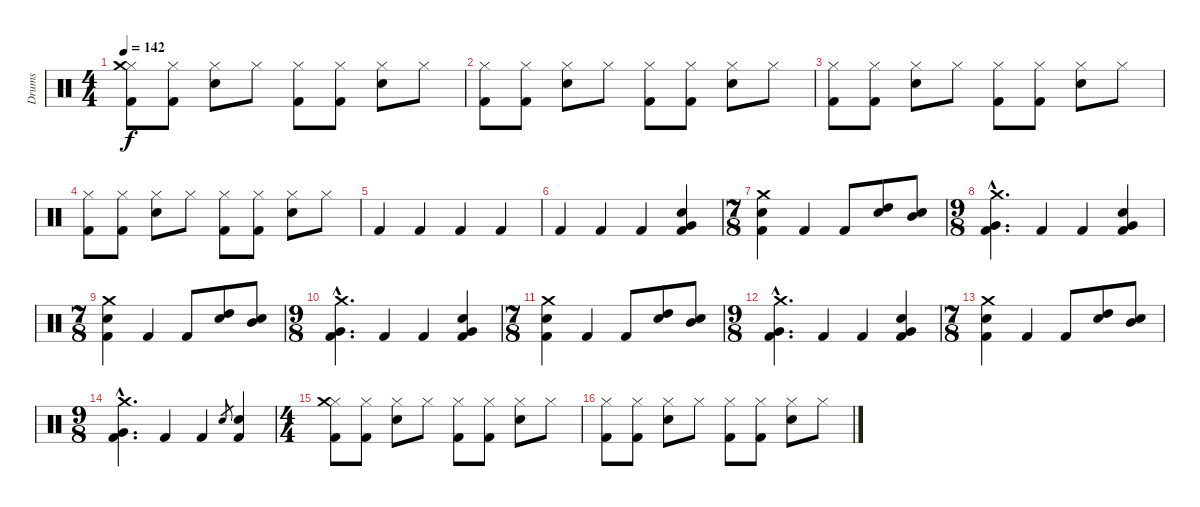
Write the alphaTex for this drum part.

\track ("Drums" "Drums") {instrument percussion}
\staff {score}
\articulation defaults
\ts (4 4)
\tempo 142
\clef neutral
\ks c
("Hi-Hat (closed)" "Crash medium (hit)" "Kick (hit) 2").8{dy f} ("Hi-Hat (closed)" "Kick (hit) 2").8 ("Hi-Hat (closed)" "Electric Snare (hit)").8 "Hi-Hat (closed)".8 ("Hi-Hat (closed)" "Kick (hit) 2").8 ("Hi-Hat (closed)" "Kick (hit) 2").8 ("Hi-Hat (closed)" "Electric Snare (hit)").8 "Hi-Hat (closed)".8 |
("Hi-Hat (closed)" "Kick (hit) 2").8 ("Hi-Hat (closed)" "Kick (hit) 2").8 ("Hi-Hat (closed)" "Electric Snare (hit)").8 "Hi-Hat (closed)".8 ("Hi-Hat (closed)" "Kick (hit) 2").8 ("Hi-Hat (closed)" "Kick (hit) 2").8 ("Hi-Hat (closed)" "Electric Snare (hit)").8 "Hi-Hat (closed)".8 |
("Hi-Hat (closed)" "Kick (hit) 2").8 ("Hi-Hat (closed)" "Kick (hit) 2").8 ("Hi-Hat (closed)" "Electric Snare (hit)").8 "Hi-Hat (closed)".8 ("Hi-Hat (closed)" "Kick (hit) 2").8 ("Hi-Hat (closed)" "Kick (hit) 2").8 ("Hi-Hat (closed)" "Electric Snare (hit)").8 "Hi-Hat (closed)".8 |
("Hi-Hat (closed)" "Kick (hit) 2").8 ("Hi-Hat (closed)" "Kick (hit) 2").8 ("Hi-Hat (closed)" "Electric Snare (hit)").8 "Hi-Hat (closed)".8 ("Hi-Hat (closed)" "Kick (hit) 2").8 ("Hi-Hat (closed)" "Kick (hit) 2").8 ("Hi-Hat (closed)" "Electric Snare (hit)").8 "Hi-Hat (closed)".8 |
"Kick (hit) 2".4 "Kick (hit) 2".4 "Kick (hit) 2".4 "Kick (hit) 2".4 |
"Kick (hit) 2".4 "Kick (hit) 2".4 "Kick (hit) 2".4 ("Very Low Tom (hit)" "Electric Snare (hit)" "Kick (hit) 2").4 |
\ts (7 8)
("Crash medium (hit)" "Electric Snare (hit)" "Kick (hit) 2").4 "Kick (hit) 2".4 "Kick (hit) 2".8 ("High Tom (hit)" "Electric Snare (hit)").8 ("Mid Tom (hit)" "Electric Snare (hit)").8 |
\ts (9 8)
("Crash medium (hit)"{hac} "Very Low Tom (hit)"{hac} "Kick (hit) 2"{hac}).4{d} "Kick (hit) 2".4 "Kick (hit) 2".4 ("Very Low Tom (hit)" "Electric Snare (hit)" "Kick (hit) 2").4 |
\ts (7 8)
("Crash medium (hit)" "Electric Snare (hit)" "Kick (hit) 2").4 "Kick (hit) 2".4 "Kick (hit) 2".8 ("High Tom (hit)" "Electric Snare (hit)").8 ("Mid Tom (hit)" "Electric Snare (hit)").8 |
\ts (9 8)
("Crash medium (hit)"{hac} "Very Low Tom (hit)"{hac} "Kick (hit) 2"{hac}).4{d} "Kick (hit) 2".4 "Kick (hit) 2".4 ("Very Low Tom (hit)" "Electric Snare (hit)" "Kick (hit) 2").4 |
\ts (7 8)
("Crash medium (hit)" "Electric Snare (hit)" "Kick (hit) 2").4 "Kick (hit) 2".4 "Kick (hit) 2".8 ("High Tom (hit)" "Electric Snare (hit)").8 ("Mid Tom (hit)" "Electric Snare (hit)").8 |
\ts (9 8)
("Crash medium (hit)"{hac} "Very Low Tom (hit)"{hac} "Kick (hit) 2"{hac}).4{d} "Kick (hit) 2".4 "Kick (hit) 2".4 ("Very Low Tom (hit)" "Electric Snare (hit)" "Kick (hit) 2").4 |
\ts (7 8)
("Crash medium (hit)" "Electric Snare (hit)" "Kick (hit) 2").4 "Kick (hit) 2".4 "Kick (hit) 2".8 ("High Tom (hit)" "Electric Snare (hit)").8 ("Mid Tom (hit)" "Electric Snare (hit)").8 |
\ts (9 8)
("Crash medium (hit)"{hac} "Very Low Tom (hit)"{hac} "Kick (hit) 2"{hac}).4{d} "Kick (hit) 2".4 "Kick (hit) 2".4 "Electric Snare (hit)".8{gr} ("Electric Snare (hit)" "Kick (hit) 2").4 |
\ts (4 4)
("Hi-Hat (closed)" "Crash medium (hit)" "Kick (hit) 2").8 ("Hi-Hat (closed)" "Kick (hit) 2").8 ("Hi-Hat (closed)" "Electric Snare (hit)").8 "Hi-Hat (closed)".8 ("Hi-Hat (closed)" "Kick (hit) 2").8 ("Hi-Hat (closed)" "Kick (hit) 2").8 ("Hi-Hat (closed)" "Electric Snare (hit)").8 "Hi-Hat (closed)".8 |
("Hi-Hat (closed)" "Kick (hit) 2").8 ("Hi-Hat (closed)" "Kick (hit) 2").8 ("Hi-Hat (closed)" "Electric Snare (hit)").8 "Hi-Hat (closed)".8 ("Hi-Hat (closed)" "Kick (hit) 2").8 ("Hi-Hat (closed)" "Kick (hit) 2").8 ("Hi-Hat (closed)" "Electric Snare (hit)").8 "Hi-Hat (closed)".8
